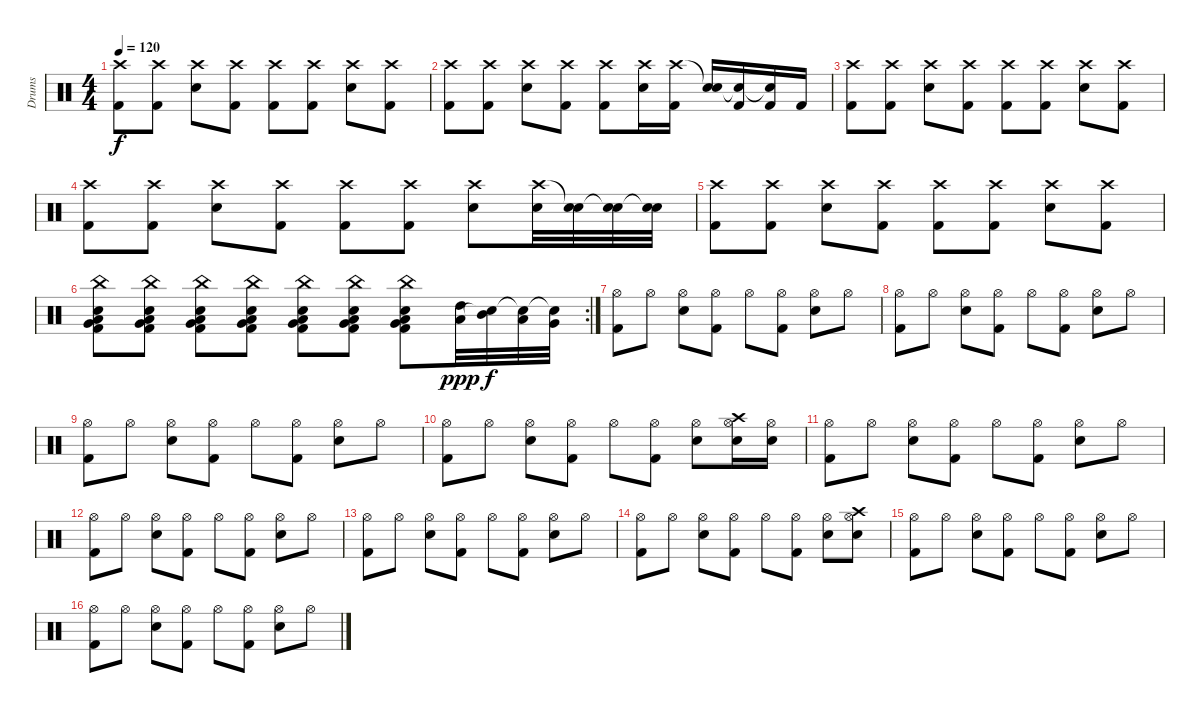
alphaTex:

\track ("Drums" "Drums") {instrument percussion}
\staff {score}
\articulation defaults
\ts (4 4)
\tempo 120
\clef neutral
\ks c
("Crash high (hit)" "Kick (hit) 2").8{dy f} ("Crash high (hit)" "Kick (hit) 2").8 ("Crash high (hit)" "Electric Snare (hit)").8 ("Crash high (hit)" "Kick (hit) 2").8 ("Crash high (hit)" "Kick (hit) 2").8 ("Crash high (hit)" "Kick (hit) 2").8 ("Crash high (hit)" "Electric Snare (hit)").8 ("Crash high (hit)" "Kick (hit) 2").8 |
("Crash high (hit)" "Kick (hit) 2").8 ("Crash high (hit)" "Kick (hit) 2").8 ("Crash high (hit)" "Electric Snare (hit)").8 ("Crash high (hit)" "Kick (hit) 2").8 ("Crash high (hit)" "Kick (hit) 2").8 ("Crash high (hit)" "Electric Snare (hit)").16 ("Crash high (hit)" "Kick (hit) 2").16 ("Snare (hit)"{t} "Electric Snare (hit)").16 ("Snare (hit)"{t} "Kick (hit) 2").16 ("Snare (hit)"{t} "Kick (hit) 2").16 "Kick (hit) 2".16 |
("Crash high (hit)" "Kick (hit) 2").8 ("Crash high (hit)" "Kick (hit) 2").8 ("Crash high (hit)" "Electric Snare (hit)").8 ("Crash high (hit)" "Kick (hit) 2").8 ("Crash high (hit)" "Kick (hit) 2").8 ("Crash high (hit)" "Kick (hit) 2").8 ("Crash high (hit)" "Electric Snare (hit)").8 ("Crash high (hit)" "Kick (hit) 2").8 |
("Crash high (hit)" "Kick (hit) 2").8 ("Crash high (hit)" "Kick (hit) 2").8 ("Crash high (hit)" "Electric Snare (hit)").8 ("Crash high (hit)" "Kick (hit) 2").8 ("Crash high (hit)" "Kick (hit) 2").8 ("Crash high (hit)" "Kick (hit) 2").8 ("Crash high (hit)" "Electric Snare (hit)").8 ("Crash high (hit)" "Electric Snare (hit)").32 ("Snare (hit)"{t} "Electric Snare (hit)").32 ("Snare (hit)"{t} "Electric Snare (hit)").32 ("Snare (hit)"{t} "Electric Snare (hit)").32 |
("Crash high (hit)" "Kick (hit) 2").8 ("Crash high (hit)" "Kick (hit) 2").8 ("Crash high (hit)" "Electric Snare (hit)").8 ("Crash high (hit)" "Kick (hit) 2").8 ("Crash high (hit)" "Kick (hit) 2").8 ("Crash high (hit)" "Kick (hit) 2").8 ("Crash high (hit)" "Electric Snare (hit)").8 ("Crash high (hit)" "Kick (hit) 2").8 |
\rc 2
("Very Low Tom (hit)" "Low Floor Tom (hit)" "China (hit)" "Kick (hit) 2" "Electric Snare (hit)").8 ("Very Low Tom (hit)" "Low Floor Tom (hit)" "China (hit)" "Kick (hit) 2" "Electric Snare (hit)").8 ("Very Low Tom (hit)" "Low Floor Tom (hit)" "China (hit)" "Kick (hit) 2" "Electric Snare (hit)").8 ("Very Low Tom (hit)" "Low Floor Tom (hit)" "China (hit)" "Kick (hit) 2" "Electric Snare (hit)").8 ("Very Low Tom (hit)" "Low Floor Tom (hit)" "China (hit)" "Kick (hit) 2" "Electric Snare (hit)").8 ("Very Low Tom (hit)" "Low Floor Tom (hit)" "China (hit)" "Kick (hit) 2" "Electric Snare (hit)").8 ("Very Low Tom (hit)" "Low Floor Tom (hit)" "China (hit)" "Kick (hit) 2" "Electric Snare (hit)").8 ("Low Floor Tom (hit)" "High Tom (hit)").32{dy ppp} ("Snare (hit)"{t} "Mid Tom (hit)").32{dy f} ("Snare (hit)"{t} "Low Tom (hit)").32 ("Snare (hit)"{t} "Very Low Tom (hit)").32 |
("Kick (hit) 2" "Hi-Hat (open)").8 "Hi-Hat (open)".8 ("Electric Snare (hit)" "Hi-Hat (open)").8 ("Kick (hit) 2" "Hi-Hat (open)").8 "Hi-Hat (open)".8 ("Kick (hit) 2" "Hi-Hat (open)").8 ("Electric Snare (hit)" "Hi-Hat (open)").8 "Hi-Hat (open)".8 |
("Kick (hit) 2" "Hi-Hat (open)").8 "Hi-Hat (open)".8 ("Electric Snare (hit)" "Hi-Hat (open)").8 ("Kick (hit) 2" "Hi-Hat (open)").8 "Hi-Hat (open)".8 ("Kick (hit) 2" "Hi-Hat (open)").8 ("Electric Snare (hit)" "Hi-Hat (open)").8 "Hi-Hat (open)".8 |
("Kick (hit) 2" "Hi-Hat (open)").8 "Hi-Hat (open)".8 ("Electric Snare (hit)" "Hi-Hat (open)").8 ("Kick (hit) 2" "Hi-Hat (open)").8 "Hi-Hat (open)".8 ("Kick (hit) 2" "Hi-Hat (open)").8 ("Electric Snare (hit)" "Hi-Hat (open)").8 "Hi-Hat (open)".8 |
("Kick (hit) 2" "Hi-Hat (open)").8 "Hi-Hat (open)".8 ("Electric Snare (hit)" "Hi-Hat (open)").8 ("Kick (hit) 2" "Hi-Hat (open)").8 "Hi-Hat (open)".8 ("Kick (hit) 2" "Hi-Hat (open)").8 ("Electric Snare (hit)" "Hi-Hat (open)").8 ("Crash high (hit)" "Electric Snare (hit)" "Hi-Hat (open)").16 ("Electric Snare (hit)" "Hi-Hat (open)").16 |
("Kick (hit) 2" "Hi-Hat (open)").8 "Hi-Hat (open)".8 ("Electric Snare (hit)" "Hi-Hat (open)").8 ("Kick (hit) 2" "Hi-Hat (open)").8 "Hi-Hat (open)".8 ("Kick (hit) 2" "Hi-Hat (open)").8 ("Electric Snare (hit)" "Hi-Hat (open)").8 "Hi-Hat (open)".8 |
("Kick (hit) 2" "Hi-Hat (open)").8 "Hi-Hat (open)".8 ("Electric Snare (hit)" "Hi-Hat (open)").8 ("Kick (hit) 2" "Hi-Hat (open)").8 "Hi-Hat (open)".8 ("Kick (hit) 2" "Hi-Hat (open)").8 ("Electric Snare (hit)" "Hi-Hat (open)").8 "Hi-Hat (open)".8 |
("Kick (hit) 2" "Hi-Hat (open)").8 "Hi-Hat (open)".8 ("Electric Snare (hit)" "Hi-Hat (open)").8 ("Kick (hit) 2" "Hi-Hat (open)").8 "Hi-Hat (open)".8 ("Kick (hit) 2" "Hi-Hat (open)").8 ("Electric Snare (hit)" "Hi-Hat (open)").8 "Hi-Hat (open)".8 |
("Kick (hit) 2" "Hi-Hat (open)").8 "Hi-Hat (open)".8 ("Electric Snare (hit)" "Hi-Hat (open)").8 ("Kick (hit) 2" "Hi-Hat (open)").8 "Hi-Hat (open)".8 ("Kick (hit) 2" "Hi-Hat (open)").8 ("Electric Snare (hit)" "Hi-Hat (open)").8 ("Crash high (hit)" "Electric Snare (hit)" "Hi-Hat (open)").8 |
("Kick (hit) 2" "Hi-Hat (open)").8 "Hi-Hat (open)".8 ("Electric Snare (hit)" "Hi-Hat (open)").8 ("Kick (hit) 2" "Hi-Hat (open)").8 "Hi-Hat (open)".8 ("Kick (hit) 2" "Hi-Hat (open)").8 ("Electric Snare (hit)" "Hi-Hat (open)").8 "Hi-Hat (open)".8 |
("Kick (hit) 2" "Hi-Hat (open)").8 "Hi-Hat (open)".8 ("Electric Snare (hit)" "Hi-Hat (open)").8 ("Kick (hit) 2" "Hi-Hat (open)").8 "Hi-Hat (open)".8 ("Kick (hit) 2" "Hi-Hat (open)").8 ("Electric Snare (hit)" "Hi-Hat (open)").8 "Hi-Hat (open)".8
